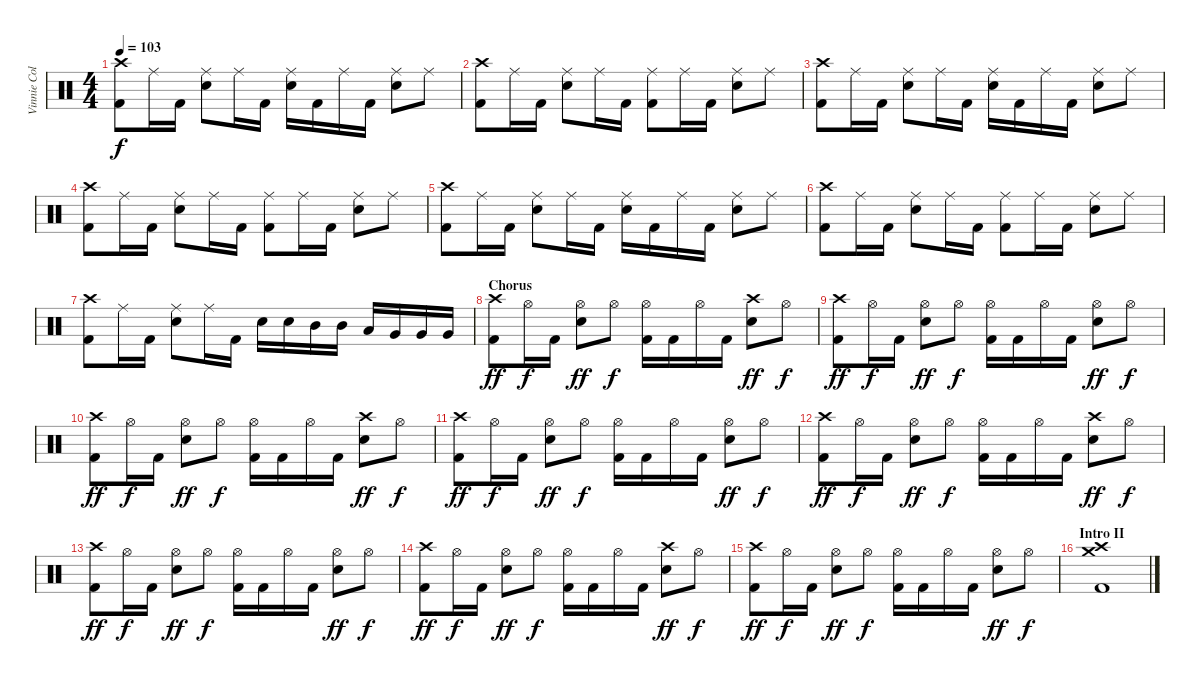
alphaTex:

\track ("Vinnie Colaiuta" "Vinnie Col") {instrument percussion}
\staff {score}
\articulation defaults
\ts (4 4)
\tempo 103
\clef neutral
\ks c
("Crash high (hit)" "Kick (hit) 2").8{dy f} "Ride (middle)".16 "Kick (hit) 2".16 ("Ride (middle)" "Electric Snare (hit)").8 "Ride (middle)".16 "Kick (hit) 2".16 ("Ride (middle)" "Electric Snare (hit)").16 "Kick (hit) 2".16 "Ride (middle)".16 "Kick (hit) 2".16 ("Ride (middle)" "Electric Snare (hit)").8 "Ride (middle)".8 |
("Crash high (hit)" "Kick (hit) 2").8 "Ride (middle)".16 "Kick (hit) 2".16 ("Ride (middle)" "Electric Snare (hit)").8 "Ride (middle)".16 "Kick (hit) 2".16 ("Ride (middle)" "Kick (hit) 2").8 "Ride (middle)".16 "Kick (hit) 2".16 ("Ride (middle)" "Electric Snare (hit)").8 "Ride (middle)".8 |
("Crash high (hit)" "Kick (hit) 2").8 "Ride (middle)".16 "Kick (hit) 2".16 ("Ride (middle)" "Electric Snare (hit)").8 "Ride (middle)".16 "Kick (hit) 2".16 ("Ride (middle)" "Electric Snare (hit)").16 "Kick (hit) 2".16 "Ride (middle)".16 "Kick (hit) 2".16 ("Ride (middle)" "Electric Snare (hit)").8 "Ride (middle)".8 |
("Crash high (hit)" "Kick (hit) 2").8 "Ride (middle)".16 "Kick (hit) 2".16 ("Ride (middle)" "Electric Snare (hit)").8 "Ride (middle)".16 "Kick (hit) 2".16 ("Ride (middle)" "Kick (hit) 2").8 "Ride (middle)".16 "Kick (hit) 2".16 ("Ride (middle)" "Electric Snare (hit)").8 "Ride (middle)".8 |
("Crash high (hit)" "Kick (hit) 2").8 "Ride (middle)".16 "Kick (hit) 2".16 ("Ride (middle)" "Electric Snare (hit)").8 "Ride (middle)".16 "Kick (hit) 2".16 ("Ride (middle)" "Electric Snare (hit)").16 "Kick (hit) 2".16 "Ride (middle)".16 "Kick (hit) 2".16 ("Ride (middle)" "Electric Snare (hit)").8 "Ride (middle)".8 |
("Crash high (hit)" "Kick (hit) 2").8 "Ride (middle)".16 "Kick (hit) 2".16 ("Ride (middle)" "Electric Snare (hit)").8 "Ride (middle)".16 "Kick (hit) 2".16 ("Ride (middle)" "Kick (hit) 2").8 "Ride (middle)".16 "Kick (hit) 2".16 ("Ride (middle)" "Electric Snare (hit)").8 "Ride (middle)".8 |
("Crash high (hit)" "Kick (hit) 2").8 "Ride (middle)".16 "Kick (hit) 2".16 ("Ride (middle)" "Electric Snare (hit)").8 "Ride (middle)".16 "Kick (hit) 2".16 "Electric Snare (hit)".16 "Electric Snare (hit)".16 "Mid Tom (hit)".16 "Mid Tom (hit)".16 "Low Tom (hit)".16 "Very Low Tom (hit)".16 "Very Low Tom (hit)".16 "Very Low Tom (hit)".16 |
\section ("" "Chorus")
("Crash high (hit)" "Kick (hit) 2").8{dy ff} "Hi-Hat (open)".16{dy f} "Kick (hit) 2".16 ("Hi-Hat (open)" "Electric Snare (hit)").8{dy ff} "Hi-Hat (open)".8{dy f} ("Hi-Hat (open)" "Kick (hit) 2").16 "Kick (hit) 2".16 "Hi-Hat (open)".16 "Kick (hit) 2".16 ("Crash high (hit)" "Electric Snare (hit)").8{dy ff} "Hi-Hat (open)".8{dy f} |
("Crash high (hit)" "Kick (hit) 2").8{dy ff} "Hi-Hat (open)".16{dy f} "Kick (hit) 2".16 ("Hi-Hat (open)" "Electric Snare (hit)").8{dy ff} "Hi-Hat (open)".8{dy f} ("Hi-Hat (open)" "Kick (hit) 2").16 "Kick (hit) 2".16 "Hi-Hat (open)".16 "Kick (hit) 2".16 ("Hi-Hat (open)" "Electric Snare (hit)").8{dy ff} "Hi-Hat (open)".8{dy f} |
("Crash high (hit)" "Kick (hit) 2").8{dy ff} "Hi-Hat (open)".16{dy f} "Kick (hit) 2".16 ("Hi-Hat (open)" "Electric Snare (hit)").8{dy ff} "Hi-Hat (open)".8{dy f} ("Hi-Hat (open)" "Kick (hit) 2").16 "Kick (hit) 2".16 "Hi-Hat (open)".16 "Kick (hit) 2".16 ("Crash high (hit)" "Electric Snare (hit)").8{dy ff} "Hi-Hat (open)".8{dy f} |
("Crash high (hit)" "Kick (hit) 2").8{dy ff} "Hi-Hat (open)".16{dy f} "Kick (hit) 2".16 ("Hi-Hat (open)" "Electric Snare (hit)").8{dy ff} "Hi-Hat (open)".8{dy f} ("Hi-Hat (open)" "Kick (hit) 2").16 "Kick (hit) 2".16 "Hi-Hat (open)".16 "Kick (hit) 2".16 ("Hi-Hat (open)" "Electric Snare (hit)").8{dy ff} "Hi-Hat (open)".8{dy f} |
("Crash high (hit)" "Kick (hit) 2").8{dy ff} "Hi-Hat (open)".16{dy f} "Kick (hit) 2".16 ("Hi-Hat (open)" "Electric Snare (hit)").8{dy ff} "Hi-Hat (open)".8{dy f} ("Hi-Hat (open)" "Kick (hit) 2").16 "Kick (hit) 2".16 "Hi-Hat (open)".16 "Kick (hit) 2".16 ("Crash high (hit)" "Electric Snare (hit)").8{dy ff} "Hi-Hat (open)".8{dy f} |
("Crash high (hit)" "Kick (hit) 2").8{dy ff} "Hi-Hat (open)".16{dy f} "Kick (hit) 2".16 ("Hi-Hat (open)" "Electric Snare (hit)").8{dy ff} "Hi-Hat (open)".8{dy f} ("Hi-Hat (open)" "Kick (hit) 2").16 "Kick (hit) 2".16 "Hi-Hat (open)".16 "Kick (hit) 2".16 ("Hi-Hat (open)" "Electric Snare (hit)").8{dy ff} "Hi-Hat (open)".8{dy f} |
("Crash high (hit)" "Kick (hit) 2").8{dy ff} "Hi-Hat (open)".16{dy f} "Kick (hit) 2".16 ("Hi-Hat (open)" "Electric Snare (hit)").8{dy ff} "Hi-Hat (open)".8{dy f} ("Hi-Hat (open)" "Kick (hit) 2").16 "Kick (hit) 2".16 "Hi-Hat (open)".16 "Kick (hit) 2".16 ("Crash high (hit)" "Electric Snare (hit)").8{dy ff} "Hi-Hat (open)".8{dy f} |
("Crash high (hit)" "Kick (hit) 2").8{dy ff} "Hi-Hat (open)".16{dy f} "Kick (hit) 2".16 ("Hi-Hat (open)" "Electric Snare (hit)").8{dy ff} "Hi-Hat (open)".8{dy f} ("Hi-Hat (open)" "Kick (hit) 2").16 "Kick (hit) 2".16 "Hi-Hat (open)".16 "Kick (hit) 2".16 ("Hi-Hat (open)" "Electric Snare (hit)").8{dy ff} "Hi-Hat (open)".8{dy f} |
\section ("" "Intro II")
("Crash medium (hit)" "Crash high (hit)" "Kick (hit) 2").1
